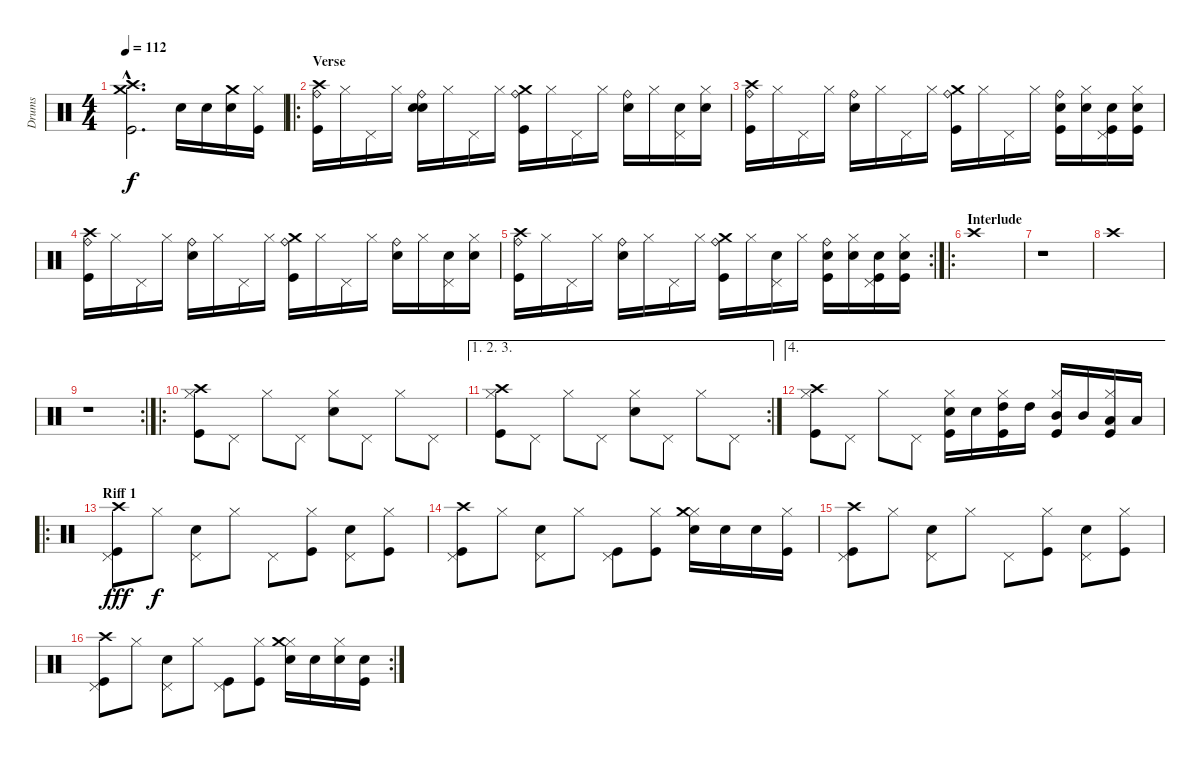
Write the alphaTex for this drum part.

\track ("Drums" "Drums") {instrument percussion}
\staff {score}
\articulation defaults
\ts (4 4)
\tempo 112
\clef neutral
\ks c
("Crash medium (hit)"{hac} "Crash high (hit)"{hac} "Kick (hit)"{hac}).2{d dy f} "Electric Snare (hit)".16 "Electric Snare (hit)".16 ("Electric Snare (hit)" "Crash medium (hit)").16 ("Hi-Hat (closed)" "Kick (hit)").16 |
\ro
\section ("" "Verse")
("Ride (bell)" "Kick (hit)" "Crash high (hit)").16 "Hi-Hat (closed)".16 "Pedal Hi-Hat (hit)".16 "Hi-Hat (closed)".16 ("Ride (bell)" "Snare (hit) 2" "Electric Snare (hit)").16 "Hi-Hat (closed)".16 "Pedal Hi-Hat (hit)".16 "Hi-Hat (closed)".16 ("Ride (bell)" "Kick (hit)" "Crash medium (hit)").16 "Hi-Hat (closed)".16 "Pedal Hi-Hat (hit)".16 "Hi-Hat (closed)".16 ("Ride (bell)" "Snare (hit) 2").16 "Hi-Hat (closed)".16 ("Pedal Hi-Hat (hit)" "Snare (hit) 2").16 ("Hi-Hat (closed)" "Electric Snare (hit)").16 |
("Ride (bell)" "Crash high (hit)" "Kick (hit)").16 "Hi-Hat (closed)".16 "Pedal Hi-Hat (hit)".16 "Hi-Hat (closed)".16 ("Ride (bell)" "Electric Snare (hit)").16 "Hi-Hat (closed)".16 "Pedal Hi-Hat (hit)".16 "Hi-Hat (closed)".16 ("Ride (bell)" "Crash medium (hit)" "Kick (hit)").16 "Hi-Hat (closed)".16 "Pedal Hi-Hat (hit)".16 "Hi-Hat (closed)".16 ("Ride (bell)" "Electric Snare (hit)" "Kick (hit)").16 ("Hi-Hat (closed)" "Electric Snare (hit)").16 ("Pedal Hi-Hat (hit)" "Electric Snare (hit)" "Kick (hit)").16 ("Hi-Hat (closed)" "Electric Snare (hit)" "Kick (hit)").16 |
("Ride (bell)" "Crash high (hit)" "Kick (hit)").16 "Hi-Hat (closed)".16 "Pedal Hi-Hat (hit)".16 "Hi-Hat (closed)".16 ("Ride (bell)" "Electric Snare (hit)").16 "Hi-Hat (closed)".16 "Pedal Hi-Hat (hit)".16 "Hi-Hat (closed)".16 ("Ride (bell)" "Crash medium (hit)" "Kick (hit)").16 "Hi-Hat (closed)".16 "Pedal Hi-Hat (hit)".16 "Hi-Hat (closed)".16 ("Ride (bell)" "Electric Snare (hit)").16 "Hi-Hat (closed)".16 ("Pedal Hi-Hat (hit)" "Electric Snare (hit)").16 ("Hi-Hat (closed)" "Electric Snare (hit)").16 |
\rc 2
("Ride (bell)" "Crash high (hit)" "Kick (hit)").16 "Hi-Hat (closed)".16 "Pedal Hi-Hat (hit)".16 "Hi-Hat (closed)".16 ("Ride (bell)" "Electric Snare (hit)").16 "Hi-Hat (closed)".16 "Pedal Hi-Hat (hit)".16 "Hi-Hat (closed)".16 ("Ride (bell)" "Crash medium (hit)" "Kick (hit)").16 "Hi-Hat (closed)".16 ("Pedal Hi-Hat (hit)" "Electric Snare (hit)").16 "Hi-Hat (closed)".16 ("Ride (bell)" "Electric Snare (hit)" "Kick (hit)").16 ("Hi-Hat (closed)" "Electric Snare (hit)").16 ("Pedal Hi-Hat (hit)" "Electric Snare (hit)" "Kick (hit)").16 ("Hi-Hat (closed)" "Electric Snare (hit)" "Kick (hit)").16 |
\ro
\section ("" "Interlude")
"Crash high (hit)".1 |
r.1 |
"Crash high (hit)".1 |
\rc 2
r.1 |
\ro
("Hi-Hat (closed)" "Crash high (hit)" "Kick (hit)").8 "Pedal Hi-Hat (hit)".8 "Hi-Hat (closed)".8 "Pedal Hi-Hat (hit)".8 ("Hi-Hat (closed)" "Electric Snare (hit)").8 "Pedal Hi-Hat (hit)".8 "Hi-Hat (closed)".8 "Pedal Hi-Hat (hit)".8 |
\ae (1 2 3)
\rc 2
("Hi-Hat (closed)" "Crash high (hit)" "Kick (hit)").8 "Pedal Hi-Hat (hit)".8 "Hi-Hat (closed)".8 "Pedal Hi-Hat (hit)".8 ("Hi-Hat (closed)" "Electric Snare (hit)").8 "Pedal Hi-Hat (hit)".8 "Hi-Hat (closed)".8 "Pedal Hi-Hat (hit)".8 |
\ae 4
("Hi-Hat (closed)" "Crash high (hit)" "Kick (hit)").8 "Pedal Hi-Hat (hit)".8 "Hi-Hat (closed)".8 "Pedal Hi-Hat (hit)".8 ("Hi-Hat (closed)" "Electric Snare (hit)" "Kick (hit)").16 "Electric Snare (hit)".16 ("Hi-Hat (closed)" "High Tom (hit)" "Kick (hit)").16 "High Tom (hit)".16 ("Hi-Hat (closed)" "Mid Tom (hit)" "Kick (hit)").16 "Mid Tom (hit)".16 ("Hi-Hat (closed)" "Low Tom (hit)" "Kick (hit)").16 "Low Tom (hit)".16 |
\ro
\section ("" "Riff 1")
("Pedal Hi-Hat (hit)" "Crash high (hit)" "Kick (hit)").8{dy fff} "Hi-Hat (closed)".8{dy f} ("Pedal Hi-Hat (hit)" "Electric Snare (hit)").8 "Hi-Hat (closed)".8 "Pedal Hi-Hat (hit)".8 ("Hi-Hat (closed)" "Kick (hit)").8 ("Pedal Hi-Hat (hit)" "Electric Snare (hit)").8 ("Hi-Hat (closed)" "Kick (hit)").8 |
("Pedal Hi-Hat (hit)" "Crash high (hit)" "Kick (hit)").8 "Hi-Hat (closed)".8 ("Pedal Hi-Hat (hit)" "Electric Snare (hit)").8 "Hi-Hat (closed)".8 ("Pedal Hi-Hat (hit)" "Kick (hit)").8 ("Hi-Hat (closed)" "Kick (hit)").8 ("Hi-Hat (closed)" "Electric Snare (hit)" "Crash medium (hit)").16 "Electric Snare (hit)".16 "Electric Snare (hit)".16 ("Hi-Hat (closed)" "Kick (hit)").16 |
("Pedal Hi-Hat (hit)" "Crash high (hit)" "Kick (hit)").8 "Hi-Hat (closed)".8 ("Pedal Hi-Hat (hit)" "Electric Snare (hit)").8 "Hi-Hat (closed)".8 "Pedal Hi-Hat (hit)".8 ("Hi-Hat (closed)" "Kick (hit)").8 ("Pedal Hi-Hat (hit)" "Electric Snare (hit)").8 ("Hi-Hat (closed)" "Kick (hit)").8 |
\rc 2
("Pedal Hi-Hat (hit)" "Crash high (hit)" "Kick (hit)").8 "Hi-Hat (closed)".8 ("Pedal Hi-Hat (hit)" "Electric Snare (hit)").8 "Hi-Hat (closed)".8 ("Pedal Hi-Hat (hit)" "Kick (hit)").8 ("Hi-Hat (closed)" "Kick (hit)").8 ("Hi-Hat (closed)" "Electric Snare (hit)" "Crash medium (hit)").16 "Electric Snare (hit)".16 ("Hi-Hat (closed)" "Electric Snare (hit)").16 ("Electric Snare (hit)" "Kick (hit)").16
